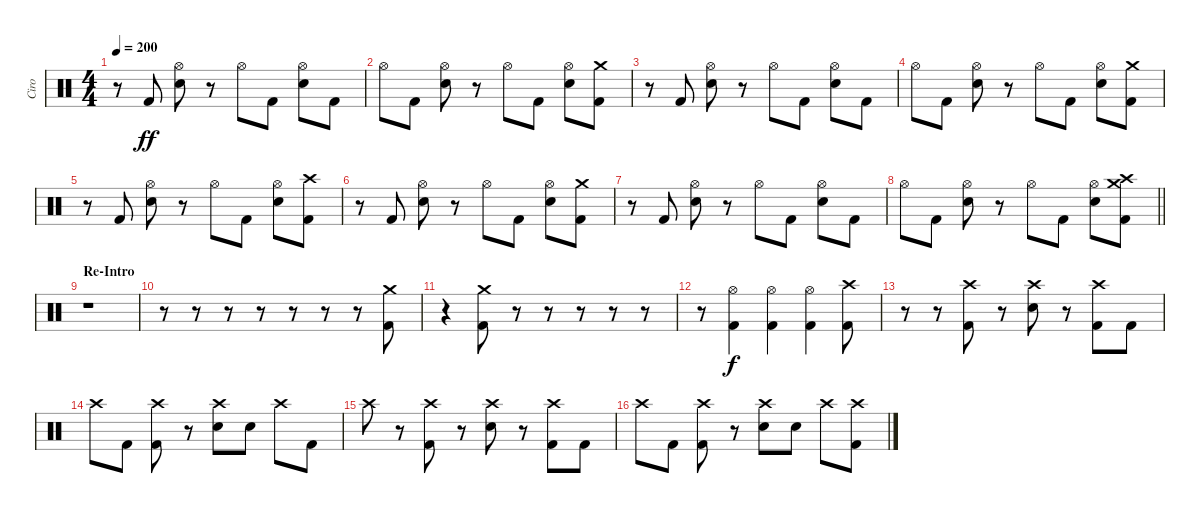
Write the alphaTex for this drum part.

\track ("Ciro" "Ciro") {instrument percussion}
\staff {score}
\articulation defaults
\ts (4 4)
\tempo 200
\clef neutral
\ks c
r.8{dy ff} "Kick (hit) 2".8 ("Hi-Hat (open)" "Snare (hit) 2").8 r.8 "Hi-Hat (open)".8 "Kick (hit) 2".8 ("Hi-Hat (open)" "Snare (hit) 2").8 "Kick (hit) 2".8 |
"Hi-Hat (open)".8 "Kick (hit) 2".8 ("Hi-Hat (open)" "Snare (hit) 2").8 r.8 "Hi-Hat (open)".8 "Kick (hit) 2".8 ("Hi-Hat (open)" "Snare (hit) 2").8 ("Crash medium (hit)" "Kick (hit) 2").8 |
r.8 "Kick (hit) 2".8 ("Hi-Hat (open)" "Snare (hit) 2").8 r.8 "Hi-Hat (open)".8 "Kick (hit) 2".8 ("Hi-Hat (open)" "Snare (hit) 2").8 "Kick (hit) 2".8 |
"Hi-Hat (open)".8 "Kick (hit) 2".8 ("Hi-Hat (open)" "Snare (hit) 2").8 r.8 "Hi-Hat (open)".8 "Kick (hit) 2".8 ("Hi-Hat (open)" "Snare (hit) 2").8 ("Crash medium (hit)" "Kick (hit) 2").8 |
r.8 "Kick (hit) 2".8 ("Hi-Hat (open)" "Snare (hit) 2").8 r.8 "Hi-Hat (open)".8 "Kick (hit) 2".8 ("Hi-Hat (open)" "Snare (hit) 2").8 ("Crash high (hit)" "Kick (hit) 2").8 |
r.8 "Kick (hit) 2".8 ("Hi-Hat (open)" "Snare (hit) 2").8 r.8 "Hi-Hat (open)".8 "Kick (hit) 2".8 ("Hi-Hat (open)" "Snare (hit) 2").8 ("Crash medium (hit)" "Kick (hit) 2").8 |
r.8 "Kick (hit) 2".8 ("Hi-Hat (open)" "Snare (hit) 2").8 r.8 "Hi-Hat (open)".8 "Kick (hit) 2".8 ("Hi-Hat (open)" "Snare (hit) 2").8 "Kick (hit) 2".8 |
\barLineRight lightlight "Hi-Hat (open)".8 "Kick (hit) 2".8
("Hi-Hat (open)" "Snare (hit) 2").8 r.8 "Hi-Hat (open)".8 "Kick (hit) 2".8 ("Hi-Hat (open)" "Snare (hit) 2").8 ("Crash high (hit)" "Crash medium (hit)" "Kick (hit) 2").8 |
\section ("" "Re-Intro")
r.1 |
r.8 r.8 r.8 r.8 r.8 r.8 r.8 ("Crash medium (hit)" "Kick (hit) 2").8 |
r.4 ("Crash medium (hit)" "Kick (hit) 2").8 r.8 r.8 r.8 r.8 r.8 |
r.8 ("Hi-Hat (open)" "Kick (hit) 2").4{dy f} ("Hi-Hat (open)" "Kick (hit) 2").4 ("Hi-Hat (open)" "Kick (hit) 2").4 ("Crash high (hit)" "Kick (hit) 2").8 |
r.8 r.8 ("Crash high (hit)" "Kick (hit) 2").8 r.8 ("Crash high (hit)" "Snare (hit) 2").8 r.8 ("Crash high (hit)" "Kick (hit) 2").8 "Kick (hit) 2".8 |
"Crash high (hit)".8 "Kick (hit) 2".8 ("Crash high (hit)" "Kick (hit) 2").8 r.8 ("Crash high (hit)" "Snare (hit) 2").8 "Snare (hit) 2".8 "Crash high (hit)".8 "Kick (hit) 2".8 |
"Crash high (hit)".8 r.8 ("Crash high (hit)" "Kick (hit) 2").8 r.8 ("Crash high (hit)" "Snare (hit) 2").8 r.8 ("Crash high (hit)" "Kick (hit) 2").8 "Kick (hit) 2".8 |
"Crash high (hit)".8 "Kick (hit) 2".8 ("Crash high (hit)" "Kick (hit) 2").8 r.8 ("Crash high (hit)" "Snare (hit) 2").8 "Snare (hit) 2".8 "Crash high (hit)".8 ("Crash high (hit)" "Kick (hit) 2").8
